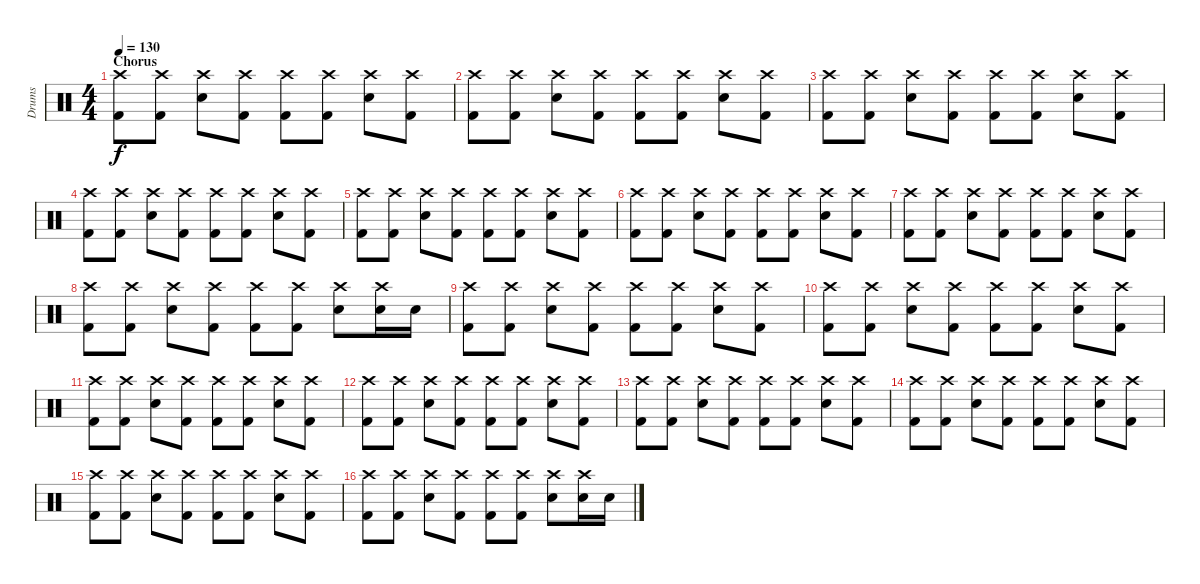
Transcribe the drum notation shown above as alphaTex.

\track ("Drums" "Drums") {instrument percussion}
\staff {score}
\articulation defaults
\ts (4 4)
\section ("" "Chorus")
\tempo 130
\clef neutral
\ks c
("Crash high (hit)" "Kick (hit) 2").8{dy f} ("Crash high (hit)" "Kick (hit) 2").8 ("Crash high (hit)" "Electric Snare (hit)").8 ("Crash high (hit)" "Kick (hit) 2").8 ("Crash high (hit)" "Kick (hit) 2").8 ("Crash high (hit)" "Kick (hit) 2").8 ("Crash high (hit)" "Electric Snare (hit)").8 ("Crash high (hit)" "Kick (hit) 2").8 |
("Crash high (hit)" "Kick (hit) 2").8 ("Crash high (hit)" "Kick (hit) 2").8 ("Crash high (hit)" "Electric Snare (hit)").8 ("Crash high (hit)" "Kick (hit) 2").8 ("Crash high (hit)" "Kick (hit) 2").8 ("Crash high (hit)" "Kick (hit) 2").8 ("Crash high (hit)" "Electric Snare (hit)").8 ("Crash high (hit)" "Kick (hit) 2").8 |
("Crash high (hit)" "Kick (hit) 2").8 ("Crash high (hit)" "Kick (hit) 2").8 ("Crash high (hit)" "Electric Snare (hit)").8 ("Crash high (hit)" "Kick (hit) 2").8 ("Crash high (hit)" "Kick (hit) 2").8 ("Crash high (hit)" "Kick (hit) 2").8 ("Crash high (hit)" "Electric Snare (hit)").8 ("Crash high (hit)" "Kick (hit) 2").8 |
("Crash high (hit)" "Kick (hit) 2").8 ("Crash high (hit)" "Kick (hit) 2").8 ("Crash high (hit)" "Electric Snare (hit)").8 ("Crash high (hit)" "Kick (hit) 2").8 ("Crash high (hit)" "Kick (hit) 2").8 ("Crash high (hit)" "Kick (hit) 2").8 ("Crash high (hit)" "Electric Snare (hit)").8 ("Crash high (hit)" "Kick (hit) 2").8 |
("Crash high (hit)" "Kick (hit) 2").8 ("Crash high (hit)" "Kick (hit) 2").8 ("Crash high (hit)" "Electric Snare (hit)").8 ("Crash high (hit)" "Kick (hit) 2").8 ("Crash high (hit)" "Kick (hit) 2").8 ("Crash high (hit)" "Kick (hit) 2").8 ("Crash high (hit)" "Electric Snare (hit)").8 ("Crash high (hit)" "Kick (hit) 2").8 |
("Crash high (hit)" "Kick (hit) 2").8 ("Crash high (hit)" "Kick (hit) 2").8 ("Crash high (hit)" "Electric Snare (hit)").8 ("Crash high (hit)" "Kick (hit) 2").8 ("Crash high (hit)" "Kick (hit) 2").8 ("Crash high (hit)" "Kick (hit) 2").8 ("Crash high (hit)" "Electric Snare (hit)").8 ("Crash high (hit)" "Kick (hit) 2").8 |
("Crash high (hit)" "Kick (hit) 2").8 ("Crash high (hit)" "Kick (hit) 2").8 ("Crash high (hit)" "Electric Snare (hit)").8 ("Crash high (hit)" "Kick (hit) 2").8 ("Crash high (hit)" "Kick (hit) 2").8 ("Crash high (hit)" "Kick (hit) 2").8 ("Crash high (hit)" "Electric Snare (hit)").8 ("Crash high (hit)" "Kick (hit) 2").8 |
("Crash high (hit)" "Kick (hit) 2").8 ("Crash high (hit)" "Kick (hit) 2").8 ("Crash high (hit)" "Electric Snare (hit)").8 ("Crash high (hit)" "Kick (hit) 2").8 ("Crash high (hit)" "Kick (hit) 2").8 ("Crash high (hit)" "Kick (hit) 2").8 ("Crash high (hit)" "Electric Snare (hit)").8 ("Crash high (hit)" "Electric Snare (hit)").16 "Electric Snare (hit)".16 |
("Crash high (hit)" "Kick (hit) 2").8 ("Crash high (hit)" "Kick (hit) 2").8 ("Crash high (hit)" "Electric Snare (hit)").8 ("Crash high (hit)" "Kick (hit) 2").8 ("Crash high (hit)" "Kick (hit) 2").8 ("Crash high (hit)" "Kick (hit) 2").8 ("Crash high (hit)" "Electric Snare (hit)").8 ("Crash high (hit)" "Kick (hit) 2").8 |
("Crash high (hit)" "Kick (hit) 2").8 ("Crash high (hit)" "Kick (hit) 2").8 ("Crash high (hit)" "Electric Snare (hit)").8 ("Crash high (hit)" "Kick (hit) 2").8 ("Crash high (hit)" "Kick (hit) 2").8 ("Crash high (hit)" "Kick (hit) 2").8 ("Crash high (hit)" "Electric Snare (hit)").8 ("Crash high (hit)" "Kick (hit) 2").8 |
("Crash high (hit)" "Kick (hit) 2").8 ("Crash high (hit)" "Kick (hit) 2").8 ("Crash high (hit)" "Electric Snare (hit)").8 ("Crash high (hit)" "Kick (hit) 2").8 ("Crash high (hit)" "Kick (hit) 2").8 ("Crash high (hit)" "Kick (hit) 2").8 ("Crash high (hit)" "Electric Snare (hit)").8 ("Crash high (hit)" "Kick (hit) 2").8 |
("Crash high (hit)" "Kick (hit) 2").8 ("Crash high (hit)" "Kick (hit) 2").8 ("Crash high (hit)" "Electric Snare (hit)").8 ("Crash high (hit)" "Kick (hit) 2").8 ("Crash high (hit)" "Kick (hit) 2").8 ("Crash high (hit)" "Kick (hit) 2").8 ("Crash high (hit)" "Electric Snare (hit)").8 ("Crash high (hit)" "Kick (hit) 2").8 |
("Crash high (hit)" "Kick (hit) 2").8 ("Crash high (hit)" "Kick (hit) 2").8 ("Crash high (hit)" "Electric Snare (hit)").8 ("Crash high (hit)" "Kick (hit) 2").8 ("Crash high (hit)" "Kick (hit) 2").8 ("Crash high (hit)" "Kick (hit) 2").8 ("Crash high (hit)" "Electric Snare (hit)").8 ("Crash high (hit)" "Kick (hit) 2").8 |
("Crash high (hit)" "Kick (hit) 2").8 ("Crash high (hit)" "Kick (hit) 2").8 ("Crash high (hit)" "Electric Snare (hit)").8 ("Crash high (hit)" "Kick (hit) 2").8 ("Crash high (hit)" "Kick (hit) 2").8 ("Crash high (hit)" "Kick (hit) 2").8 ("Crash high (hit)" "Electric Snare (hit)").8 ("Crash high (hit)" "Kick (hit) 2").8 |
("Crash high (hit)" "Kick (hit) 2").8 ("Crash high (hit)" "Kick (hit) 2").8 ("Crash high (hit)" "Electric Snare (hit)").8 ("Crash high (hit)" "Kick (hit) 2").8 ("Crash high (hit)" "Kick (hit) 2").8 ("Crash high (hit)" "Kick (hit) 2").8 ("Crash high (hit)" "Electric Snare (hit)").8 ("Crash high (hit)" "Kick (hit) 2").8 |
("Crash high (hit)" "Kick (hit) 2").8 ("Crash high (hit)" "Kick (hit) 2").8 ("Crash high (hit)" "Electric Snare (hit)").8 ("Crash high (hit)" "Kick (hit) 2").8 ("Crash high (hit)" "Kick (hit) 2").8 ("Crash high (hit)" "Kick (hit) 2").8 ("Crash high (hit)" "Electric Snare (hit)").8 ("Crash high (hit)" "Electric Snare (hit)").16 "Electric Snare (hit)".16
